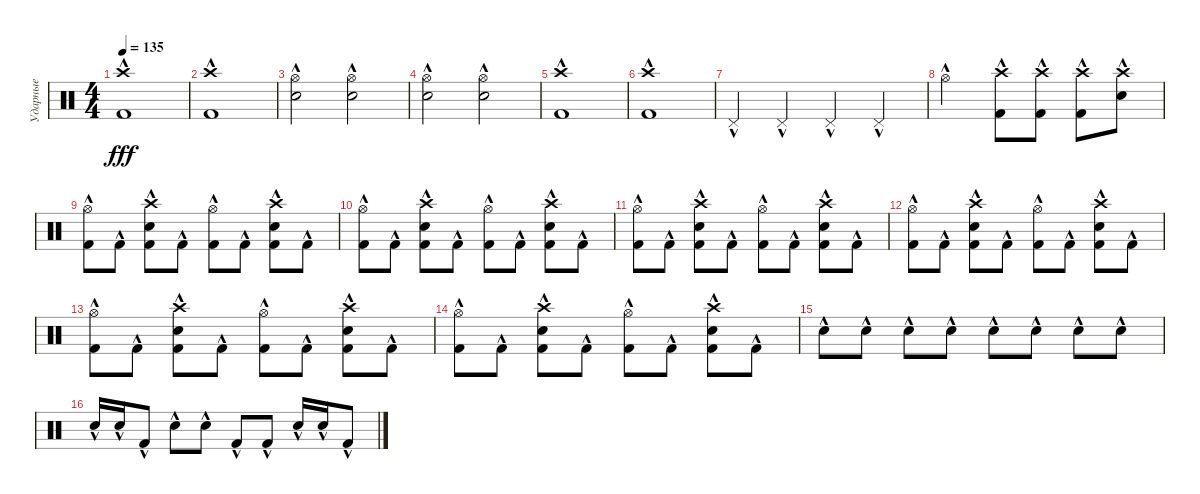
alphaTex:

\track ("Ударные" "Ударные") {instrument percussion}
\staff
\articulation defaults
\ts (4 4)
\tempo 135
\clef neutral
\ks c
("Crash high (hit)"{hac} "Kick (hit) 2"{hac}).1{dy fff} |
("Kick (hit) 2"{hac} "Crash high (hit)"{hac}).1 |
("Electric Snare (hit)"{hac} "Hi-Hat (open)"{hac}).2 ("Electric Snare (hit)"{hac} "Hi-Hat (open)"{hac}).2 |
("Electric Snare (hit)"{hac} "Hi-Hat (open)"{hac}).2 ("Electric Snare (hit)"{hac} "Hi-Hat (open)"{hac}).2 |
("Crash high (hit)"{hac} "Kick (hit) 2"{hac}).1 |
("Kick (hit) 2"{hac} "Crash high (hit)"{hac}).1 |
"Pedal Hi-Hat (hit)"{hac}.4 "Pedal Hi-Hat (hit)"{hac}.4 "Pedal Hi-Hat (hit)"{hac}.4 "Pedal Hi-Hat (hit)"{hac}.4 |
"Hi-Hat (open)"{hac}.2 ("Crash high (hit)"{hac} "Kick (hit) 2"{hac}).8 ("Crash high (hit)"{hac} "Kick (hit) 2"{hac}).8 ("Crash high (hit)"{hac} "Kick (hit) 2"{hac}).8 ("Crash high (hit)"{hac} "Electric Snare (hit)"{hac}).8 |
("Kick (hit) 2"{hac} "Hi-Hat (open)"{hac}).8 "Kick (hit) 2"{hac}.8 ("Kick (hit) 2"{hac} "Electric Snare (hit)"{hac} "Crash high (hit)"{hac}).8 "Kick (hit) 2"{hac}.8 ("Kick (hit) 2"{hac} "Hi-Hat (open)"{hac}).8 "Kick (hit) 2"{hac}.8 ("Kick (hit) 2"{hac} "Electric Snare (hit)"{hac} "Crash high (hit)"{hac}).8 "Kick (hit) 2"{hac}.8 |
("Kick (hit) 2"{hac} "Hi-Hat (open)"{hac}).8 "Kick (hit) 2"{hac}.8 ("Kick (hit) 2"{hac} "Electric Snare (hit)"{hac} "Crash high (hit)"{hac}).8 "Kick (hit) 2"{hac}.8 ("Kick (hit) 2"{hac} "Hi-Hat (open)"{hac}).8 "Kick (hit) 2"{hac}.8 ("Kick (hit) 2"{hac} "Electric Snare (hit)"{hac} "Crash high (hit)"{hac}).8 "Kick (hit) 2"{hac}.8 |
("Kick (hit) 2"{hac} "Hi-Hat (open)"{hac}).8 "Kick (hit) 2"{hac}.8 ("Kick (hit) 2"{hac} "Electric Snare (hit)"{hac} "Crash high (hit)"{hac}).8 "Kick (hit) 2"{hac}.8 ("Kick (hit) 2"{hac} "Hi-Hat (open)"{hac}).8 "Kick (hit) 2"{hac}.8 ("Kick (hit) 2"{hac} "Electric Snare (hit)"{hac} "Crash high (hit)"{hac}).8 "Kick (hit) 2"{hac}.8 |
("Kick (hit) 2"{hac} "Hi-Hat (open)"{hac}).8 "Kick (hit) 2"{hac}.8 ("Kick (hit) 2"{hac} "Electric Snare (hit)"{hac} "Crash high (hit)"{hac}).8 "Kick (hit) 2"{hac}.8 ("Kick (hit) 2"{hac} "Hi-Hat (open)"{hac}).8 "Kick (hit) 2"{hac}.8 ("Kick (hit) 2"{hac} "Electric Snare (hit)"{hac} "Crash high (hit)"{hac}).8 "Kick (hit) 2"{hac}.8 |
("Kick (hit) 2"{hac} "Hi-Hat (open)"{hac}).8 "Kick (hit) 2"{hac}.8 ("Kick (hit) 2"{hac} "Electric Snare (hit)"{hac} "Crash high (hit)"{hac}).8 "Kick (hit) 2"{hac}.8 ("Kick (hit) 2"{hac} "Hi-Hat (open)"{hac}).8 "Kick (hit) 2"{hac}.8 ("Kick (hit) 2"{hac} "Electric Snare (hit)"{hac} "Crash high (hit)"{hac}).8 "Kick (hit) 2"{hac}.8 |
("Kick (hit) 2"{hac} "Hi-Hat (open)"{hac}).8 "Kick (hit) 2"{hac}.8 ("Kick (hit) 2"{hac} "Electric Snare (hit)"{hac} "Crash high (hit)"{hac}).8 "Kick (hit) 2"{hac}.8 ("Kick (hit) 2"{hac} "Hi-Hat (open)"{hac}).8 "Kick (hit) 2"{hac}.8 ("Kick (hit) 2"{hac} "Electric Snare (hit)"{hac} "Crash high (hit)"{hac}).8 "Kick (hit) 2"{hac}.8 |
"Electric Snare (hit)"{hac}.8 "Electric Snare (hit)"{hac}.8 "Electric Snare (hit)"{hac}.8 "Electric Snare (hit)"{hac}.8 "Electric Snare (hit)"{hac}.8 "Electric Snare (hit)"{hac}.8 "Electric Snare (hit)"{hac}.8 "Electric Snare (hit)"{hac}.8 |
"Electric Snare (hit)"{hac}.16 "Electric Snare (hit)"{hac}.16 "Kick (hit) 2"{hac}.8 "Electric Snare (hit)"{hac}.8 "Electric Snare (hit)"{hac}.8 "Kick (hit) 2"{hac}.8 "Kick (hit) 2"{hac}.8 "Electric Snare (hit)"{hac}.16 "Electric Snare (hit)"{hac}.16 "Kick (hit) 2"{hac}.8
